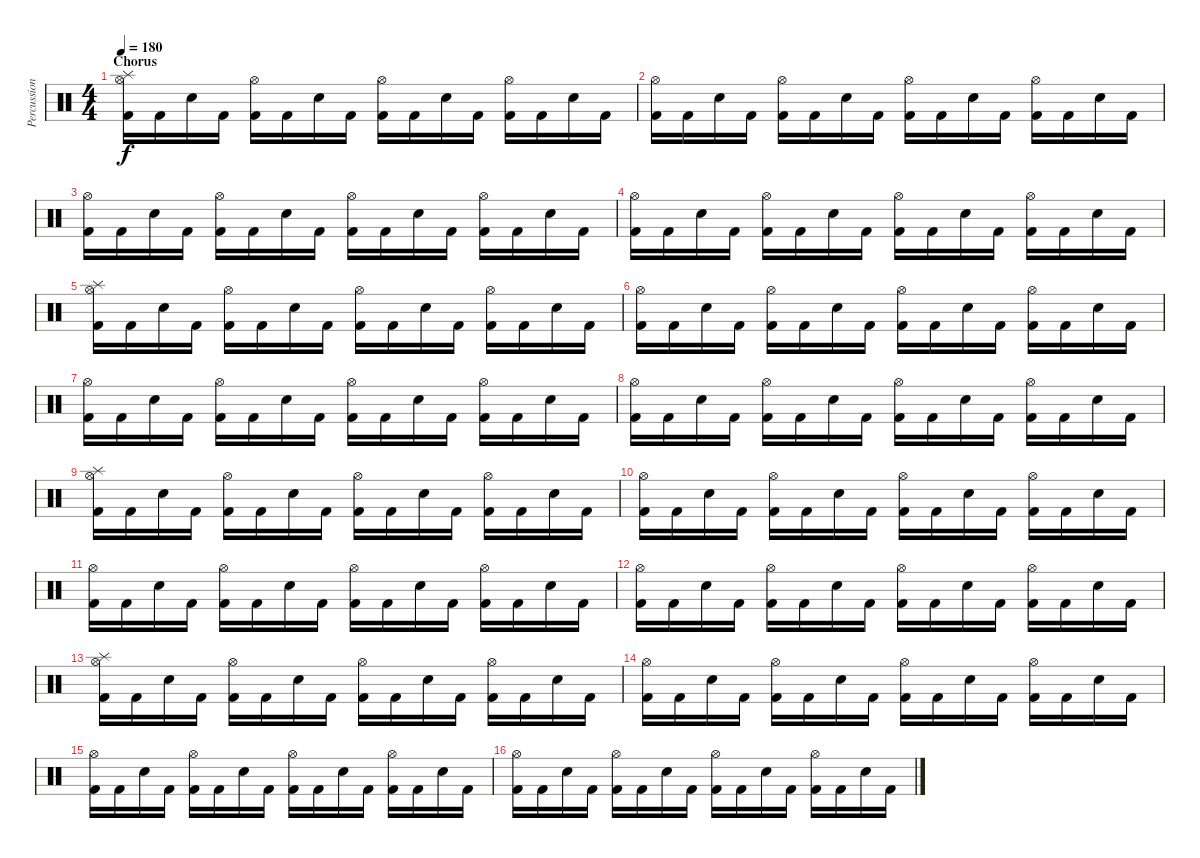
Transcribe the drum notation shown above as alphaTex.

\track ("Percussions" "Percussion") {instrument percussion}
\staff {score}
\articulation defaults
\ts (4 4)
\section ("" "Chorus")
\tempo 180
\clef neutral
\ks c
("Splash (hit)" "Hi-Hat (open)" "Kick (hit) 2").16{dy f} "Kick (hit) 2".16 "Electric Snare (hit)".16 "Kick (hit) 2".16 ("Hi-Hat (open)" "Kick (hit) 2").16 "Kick (hit) 2".16 "Electric Snare (hit)".16 "Kick (hit) 2".16 ("Hi-Hat (open)" "Kick (hit) 2").16 "Kick (hit) 2".16 "Electric Snare (hit)".16 "Kick (hit) 2".16 ("Hi-Hat (open)" "Kick (hit) 2").16 "Kick (hit) 2".16 "Electric Snare (hit)".16 "Kick (hit) 2".16 |
("Hi-Hat (open)" "Kick (hit) 2").16 "Kick (hit) 2".16 "Electric Snare (hit)".16 "Kick (hit) 2".16 ("Hi-Hat (open)" "Kick (hit) 2").16 "Kick (hit) 2".16 "Electric Snare (hit)".16 "Kick (hit) 2".16 ("Hi-Hat (open)" "Kick (hit) 2").16 "Kick (hit) 2".16 "Electric Snare (hit)".16 "Kick (hit) 2".16 ("Hi-Hat (open)" "Kick (hit) 2").16 "Kick (hit) 2".16 "Electric Snare (hit)".16 "Kick (hit) 2".16 |
("Hi-Hat (open)" "Kick (hit) 2").16 "Kick (hit) 2".16 "Electric Snare (hit)".16 "Kick (hit) 2".16 ("Hi-Hat (open)" "Kick (hit) 2").16 "Kick (hit) 2".16 "Electric Snare (hit)".16 "Kick (hit) 2".16 ("Hi-Hat (open)" "Kick (hit) 2").16 "Kick (hit) 2".16 "Electric Snare (hit)".16 "Kick (hit) 2".16 ("Hi-Hat (open)" "Kick (hit) 2").16 "Kick (hit) 2".16 "Electric Snare (hit)".16 "Kick (hit) 2".16 |
("Hi-Hat (open)" "Kick (hit) 2").16 "Kick (hit) 2".16 "Electric Snare (hit)".16 "Kick (hit) 2".16 ("Hi-Hat (open)" "Kick (hit) 2").16 "Kick (hit) 2".16 "Electric Snare (hit)".16 "Kick (hit) 2".16 ("Hi-Hat (open)" "Kick (hit) 2").16 "Kick (hit) 2".16 "Electric Snare (hit)".16 "Kick (hit) 2".16 ("Hi-Hat (open)" "Kick (hit) 2").16 "Kick (hit) 2".16 "Electric Snare (hit)".16 "Kick (hit) 2".16 |
("Splash (hit)" "Hi-Hat (open)" "Kick (hit) 2").16 "Kick (hit) 2".16 "Electric Snare (hit)".16 "Kick (hit) 2".16 ("Hi-Hat (open)" "Kick (hit) 2").16 "Kick (hit) 2".16 "Electric Snare (hit)".16 "Kick (hit) 2".16 ("Hi-Hat (open)" "Kick (hit) 2").16 "Kick (hit) 2".16 "Electric Snare (hit)".16 "Kick (hit) 2".16 ("Hi-Hat (open)" "Kick (hit) 2").16 "Kick (hit) 2".16 "Electric Snare (hit)".16 "Kick (hit) 2".16 |
("Hi-Hat (open)" "Kick (hit) 2").16 "Kick (hit) 2".16 "Electric Snare (hit)".16 "Kick (hit) 2".16 ("Hi-Hat (open)" "Kick (hit) 2").16 "Kick (hit) 2".16 "Electric Snare (hit)".16 "Kick (hit) 2".16 ("Hi-Hat (open)" "Kick (hit) 2").16 "Kick (hit) 2".16 "Electric Snare (hit)".16 "Kick (hit) 2".16 ("Hi-Hat (open)" "Kick (hit) 2").16 "Kick (hit) 2".16 "Electric Snare (hit)".16 "Kick (hit) 2".16 |
("Hi-Hat (open)" "Kick (hit) 2").16 "Kick (hit) 2".16 "Electric Snare (hit)".16 "Kick (hit) 2".16 ("Hi-Hat (open)" "Kick (hit) 2").16 "Kick (hit) 2".16 "Electric Snare (hit)".16 "Kick (hit) 2".16 ("Hi-Hat (open)" "Kick (hit) 2").16 "Kick (hit) 2".16 "Electric Snare (hit)".16 "Kick (hit) 2".16 ("Hi-Hat (open)" "Kick (hit) 2").16 "Kick (hit) 2".16 "Electric Snare (hit)".16 "Kick (hit) 2".16 |
("Hi-Hat (open)" "Kick (hit) 2").16 "Kick (hit) 2".16 "Electric Snare (hit)".16 "Kick (hit) 2".16 ("Hi-Hat (open)" "Kick (hit) 2").16 "Kick (hit) 2".16 "Electric Snare (hit)".16 "Kick (hit) 2".16 ("Hi-Hat (open)" "Kick (hit) 2").16 "Kick (hit) 2".16 "Electric Snare (hit)".16 "Kick (hit) 2".16 ("Hi-Hat (open)" "Kick (hit) 2").16 "Kick (hit) 2".16 "Electric Snare (hit)".16 "Kick (hit) 2".16 |
("Splash (hit)" "Hi-Hat (open)" "Kick (hit) 2").16 "Kick (hit) 2".16 "Electric Snare (hit)".16 "Kick (hit) 2".16 ("Hi-Hat (open)" "Kick (hit) 2").16 "Kick (hit) 2".16 "Electric Snare (hit)".16 "Kick (hit) 2".16 ("Hi-Hat (open)" "Kick (hit) 2").16 "Kick (hit) 2".16 "Electric Snare (hit)".16 "Kick (hit) 2".16 ("Hi-Hat (open)" "Kick (hit) 2").16 "Kick (hit) 2".16 "Electric Snare (hit)".16 "Kick (hit) 2".16 |
("Hi-Hat (open)" "Kick (hit) 2").16 "Kick (hit) 2".16 "Electric Snare (hit)".16 "Kick (hit) 2".16 ("Hi-Hat (open)" "Kick (hit) 2").16 "Kick (hit) 2".16 "Electric Snare (hit)".16 "Kick (hit) 2".16 ("Hi-Hat (open)" "Kick (hit) 2").16 "Kick (hit) 2".16 "Electric Snare (hit)".16 "Kick (hit) 2".16 ("Hi-Hat (open)" "Kick (hit) 2").16 "Kick (hit) 2".16 "Electric Snare (hit)".16 "Kick (hit) 2".16 |
("Hi-Hat (open)" "Kick (hit) 2").16 "Kick (hit) 2".16 "Electric Snare (hit)".16 "Kick (hit) 2".16 ("Hi-Hat (open)" "Kick (hit) 2").16 "Kick (hit) 2".16 "Electric Snare (hit)".16 "Kick (hit) 2".16 ("Hi-Hat (open)" "Kick (hit) 2").16 "Kick (hit) 2".16 "Electric Snare (hit)".16 "Kick (hit) 2".16 ("Hi-Hat (open)" "Kick (hit) 2").16 "Kick (hit) 2".16 "Electric Snare (hit)".16 "Kick (hit) 2".16 |
("Hi-Hat (open)" "Kick (hit) 2").16 "Kick (hit) 2".16 "Electric Snare (hit)".16 "Kick (hit) 2".16 ("Hi-Hat (open)" "Kick (hit) 2").16 "Kick (hit) 2".16 "Electric Snare (hit)".16 "Kick (hit) 2".16 ("Hi-Hat (open)" "Kick (hit) 2").16 "Kick (hit) 2".16 "Electric Snare (hit)".16 "Kick (hit) 2".16 ("Hi-Hat (open)" "Kick (hit) 2").16 "Kick (hit) 2".16 "Electric Snare (hit)".16 "Kick (hit) 2".16 |
("Splash (hit)" "Hi-Hat (open)" "Kick (hit) 2").16 "Kick (hit) 2".16 "Electric Snare (hit)".16 "Kick (hit) 2".16 ("Hi-Hat (open)" "Kick (hit) 2").16 "Kick (hit) 2".16 "Electric Snare (hit)".16 "Kick (hit) 2".16 ("Hi-Hat (open)" "Kick (hit) 2").16 "Kick (hit) 2".16 "Electric Snare (hit)".16 "Kick (hit) 2".16 ("Hi-Hat (open)" "Kick (hit) 2").16 "Kick (hit) 2".16 "Electric Snare (hit)".16 "Kick (hit) 2".16 |
("Hi-Hat (open)" "Kick (hit) 2").16 "Kick (hit) 2".16 "Electric Snare (hit)".16 "Kick (hit) 2".16 ("Hi-Hat (open)" "Kick (hit) 2").16 "Kick (hit) 2".16 "Electric Snare (hit)".16 "Kick (hit) 2".16 ("Hi-Hat (open)" "Kick (hit) 2").16 "Kick (hit) 2".16 "Electric Snare (hit)".16 "Kick (hit) 2".16 ("Hi-Hat (open)" "Kick (hit) 2").16 "Kick (hit) 2".16 "Electric Snare (hit)".16 "Kick (hit) 2".16 |
("Hi-Hat (open)" "Kick (hit) 2").16 "Kick (hit) 2".16 "Electric Snare (hit)".16 "Kick (hit) 2".16 ("Hi-Hat (open)" "Kick (hit) 2").16 "Kick (hit) 2".16 "Electric Snare (hit)".16 "Kick (hit) 2".16 ("Hi-Hat (open)" "Kick (hit) 2").16 "Kick (hit) 2".16 "Electric Snare (hit)".16 "Kick (hit) 2".16 ("Hi-Hat (open)" "Kick (hit) 2").16 "Kick (hit) 2".16 "Electric Snare (hit)".16 "Kick (hit) 2".16 |
("Hi-Hat (open)" "Kick (hit) 2").16 "Kick (hit) 2".16 "Electric Snare (hit)".16 "Kick (hit) 2".16 ("Hi-Hat (open)" "Kick (hit) 2").16 "Kick (hit) 2".16 "Electric Snare (hit)".16 "Kick (hit) 2".16 ("Hi-Hat (open)" "Kick (hit) 2").16 "Kick (hit) 2".16 "Electric Snare (hit)".16 "Kick (hit) 2".16 ("Hi-Hat (open)" "Kick (hit) 2").16 "Kick (hit) 2".16 "Electric Snare (hit)".16 "Kick (hit) 2".16
